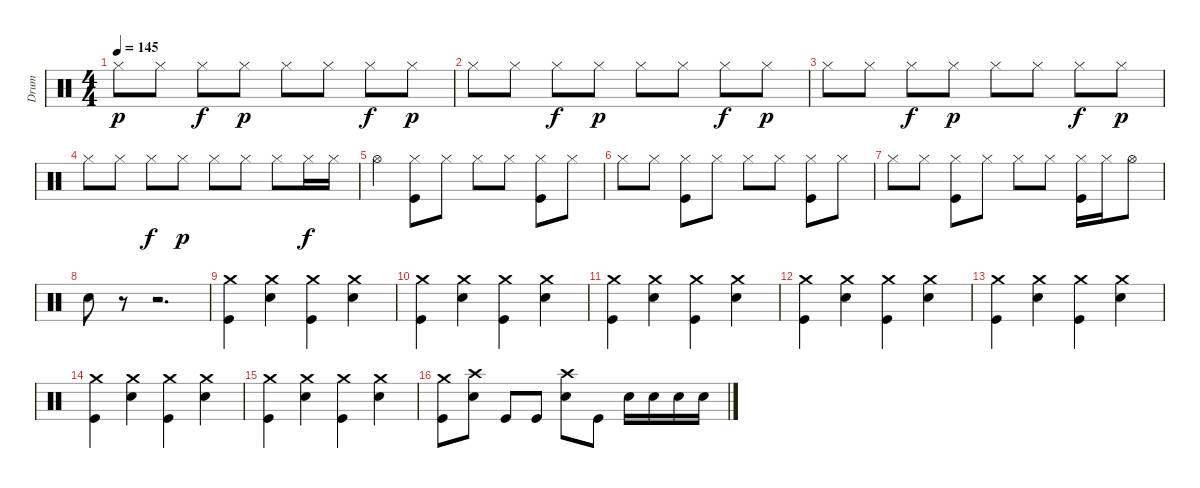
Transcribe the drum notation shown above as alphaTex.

\track ("Drum" "Drum") {instrument percussion}
\staff {score}
\articulation defaults
\ts (4 4)
\tempo 145
\clef neutral
\ks c "Hi-Hat (closed)".8{dy p} "Hi-Hat (closed)".8 "Hi-Hat (closed)".8{dy f} "Hi-Hat (closed)".8{dy p} "Hi-Hat (closed)".8 "Hi-Hat (closed)".8 "Hi-Hat (closed)".8{dy f} "Hi-Hat (closed)".8{dy p}
|
"Hi-Hat (closed)".8 "Hi-Hat (closed)".8 "Hi-Hat (closed)".8{dy f} "Hi-Hat (closed)".8{dy p} "Hi-Hat (closed)".8 "Hi-Hat (closed)".8 "Hi-Hat (closed)".8{dy f} "Hi-Hat (closed)".8{dy p} |
"Hi-Hat (closed)".8 "Hi-Hat (closed)".8 "Hi-Hat (closed)".8{dy f} "Hi-Hat (closed)".8{dy p} "Hi-Hat (closed)".8 "Hi-Hat (closed)".8 "Hi-Hat (closed)".8{dy f} "Hi-Hat (closed)".8{dy p} |
"Hi-Hat (closed)".8 "Hi-Hat (closed)".8 "Hi-Hat (closed)".8{dy f} "Hi-Hat (closed)".8{dy p} "Hi-Hat (closed)".8 "Hi-Hat (closed)".8 "Hi-Hat (closed)".8 "Hi-Hat (closed)".16{dy f} "Hi-Hat (closed)".16 |
"Hi-Hat (open)".4 ("Kick (hit)" "Hi-Hat (closed)").8 "Hi-Hat (closed)".8 "Hi-Hat (closed)".8 "Hi-Hat (closed)".8 ("Kick (hit)" "Hi-Hat (closed)").8 "Hi-Hat (closed)".8 |
"Hi-Hat (closed)".8 "Hi-Hat (closed)".8 ("Kick (hit)" "Hi-Hat (closed)").8 "Hi-Hat (closed)".8 "Hi-Hat (closed)".8 "Hi-Hat (closed)".8 ("Kick (hit)" "Hi-Hat (closed)").8 "Hi-Hat (closed)".8 |
"Hi-Hat (closed)".8 "Hi-Hat (closed)".8 ("Kick (hit)" "Hi-Hat (closed)").8 "Hi-Hat (closed)".8 "Hi-Hat (closed)".8 "Hi-Hat (closed)".8 ("Kick (hit)" "Hi-Hat (closed)").16 "Hi-Hat (closed)".16 "Hi-Hat (open)".8 |
"Electric Snare (hit)".8 r.8 r.2{d} |
("Kick (hit)" "Crash medium (hit)").4 ("Electric Snare (hit)" "Crash medium (hit)").4 ("Kick (hit)" "Crash medium (hit)").4 ("Electric Snare (hit)" "Crash medium (hit)").4 |
("Kick (hit)" "Crash medium (hit)").4 ("Electric Snare (hit)" "Crash medium (hit)").4 ("Kick (hit)" "Crash medium (hit)").4 ("Electric Snare (hit)" "Crash medium (hit)").4 |
("Kick (hit)" "Crash medium (hit)").4 ("Electric Snare (hit)" "Crash medium (hit)").4 ("Kick (hit)" "Crash medium (hit)").4 ("Electric Snare (hit)" "Crash medium (hit)").4 |
("Kick (hit)" "Crash medium (hit)").4 ("Electric Snare (hit)" "Crash medium (hit)").4 ("Kick (hit)" "Crash medium (hit)").4 ("Electric Snare (hit)" "Crash medium (hit)").4 |
("Kick (hit)" "Crash medium (hit)").4 ("Electric Snare (hit)" "Crash medium (hit)").4 ("Kick (hit)" "Crash medium (hit)").4 ("Electric Snare (hit)" "Crash medium (hit)").4 |
("Kick (hit)" "Crash medium (hit)").4 ("Electric Snare (hit)" "Crash medium (hit)").4 ("Kick (hit)" "Crash medium (hit)").4 ("Electric Snare (hit)" "Crash medium (hit)").4 |
("Kick (hit)" "Crash medium (hit)").4 ("Electric Snare (hit)" "Crash medium (hit)").4 ("Kick (hit)" "Crash medium (hit)").4 ("Electric Snare (hit)" "Crash medium (hit)").4 |
("Kick (hit)" "Crash medium (hit)").8 ("Electric Snare (hit)" "Crash high (hit)").8 "Kick (hit)".8 "Kick (hit)".8 ("Electric Snare (hit)" "Crash high (hit)").8 "Kick (hit)".8 "Electric Snare (hit)".16 "Electric Snare (hit)".16 "Electric Snare (hit)".16 "Electric Snare (hit)".16
